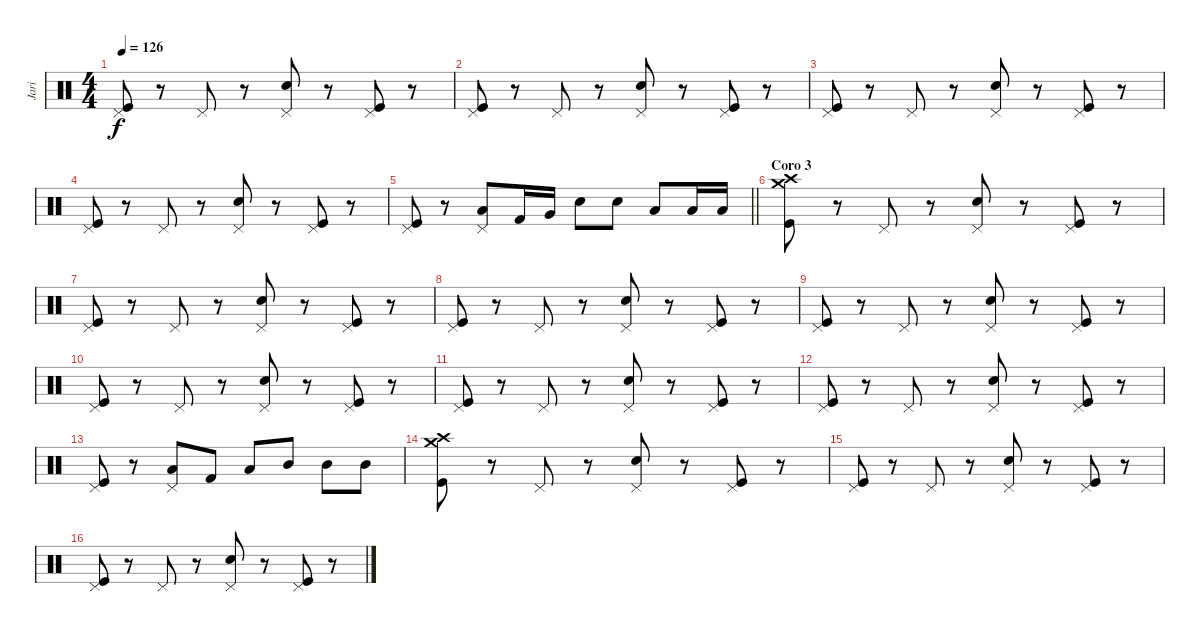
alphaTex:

\track ("Jari" "Jari") {instrument percussion}
\staff {score}
\articulation defaults
\ts (4 4)
\tempo 126
\clef neutral
\ks c
("Pedal Hi-Hat (hit)" "Kick (hit)").8{dy f} r.8 "Pedal Hi-Hat (hit)".8 r.8 ("Pedal Hi-Hat (hit)" "Snare (hit) 2").8 r.8 ("Pedal Hi-Hat (hit)" "Kick (hit)").8 r.8 |
("Pedal Hi-Hat (hit)" "Kick (hit)").8 r.8 "Pedal Hi-Hat (hit)".8 r.8 ("Pedal Hi-Hat (hit)" "Snare (hit) 2").8 r.8 ("Pedal Hi-Hat (hit)" "Kick (hit)").8 r.8 |
("Pedal Hi-Hat (hit)" "Kick (hit)").8 r.8 "Pedal Hi-Hat (hit)".8 r.8 ("Pedal Hi-Hat (hit)" "Snare (hit) 2").8 r.8 ("Pedal Hi-Hat (hit)" "Kick (hit)").8 r.8 |
("Pedal Hi-Hat (hit)" "Kick (hit)").8 r.8 "Pedal Hi-Hat (hit)".8 r.8 ("Pedal Hi-Hat (hit)" "Snare (hit) 2").8 r.8 ("Pedal Hi-Hat (hit)" "Kick (hit)").8 r.8 |
\barLineRight lightlight
("Pedal Hi-Hat (hit)" "Kick (hit)").8 r.8 ("Low Tom (hit)" "Pedal Hi-Hat (hit)").8 "Kick (hit) 2".16 "Very Low Tom (hit)".16 "Snare (hit) 2".8 "Snare (hit) 2".8 "Low Tom (hit)".8 "Low Tom (hit)".16 "Low Tom (hit)".16 |
\section ("" "Coro 3")
("Crash medium (hit)" "Crash high (hit)" "Kick (hit)").8 r.8 "Pedal Hi-Hat (hit)".8 r.8 ("Pedal Hi-Hat (hit)" "Snare (hit) 2").8 r.8 ("Pedal Hi-Hat (hit)" "Kick (hit)").8 r.8 |
("Pedal Hi-Hat (hit)" "Kick (hit)").8 r.8 "Pedal Hi-Hat (hit)".8 r.8 ("Pedal Hi-Hat (hit)" "Snare (hit) 2").8 r.8 ("Pedal Hi-Hat (hit)" "Kick (hit)").8 r.8 |
("Pedal Hi-Hat (hit)" "Kick (hit)").8 r.8 "Pedal Hi-Hat (hit)".8 r.8 ("Pedal Hi-Hat (hit)" "Snare (hit) 2").8 r.8 ("Pedal Hi-Hat (hit)" "Kick (hit)").8 r.8 |
("Pedal Hi-Hat (hit)" "Kick (hit)").8 r.8 "Pedal Hi-Hat (hit)".8 r.8 ("Pedal Hi-Hat (hit)" "Snare (hit) 2").8 r.8 ("Pedal Hi-Hat (hit)" "Kick (hit)").8 r.8 |
("Pedal Hi-Hat (hit)" "Kick (hit)").8 r.8 "Pedal Hi-Hat (hit)".8 r.8 ("Pedal Hi-Hat (hit)" "Snare (hit) 2").8 r.8 ("Pedal Hi-Hat (hit)" "Kick (hit)").8 r.8 |
("Pedal Hi-Hat (hit)" "Kick (hit)").8 r.8 "Pedal Hi-Hat (hit)".8 r.8 ("Pedal Hi-Hat (hit)" "Snare (hit) 2").8 r.8 ("Pedal Hi-Hat (hit)" "Kick (hit)").8 r.8 |
("Pedal Hi-Hat (hit)" "Kick (hit)").8 r.8 "Pedal Hi-Hat (hit)".8 r.8 ("Pedal Hi-Hat (hit)" "Snare (hit) 2").8 r.8 ("Pedal Hi-Hat (hit)" "Kick (hit)").8 r.8 |
("Pedal Hi-Hat (hit)" "Kick (hit)").8 r.8 ("Low Tom (hit)" "Pedal Hi-Hat (hit)").8 "Kick (hit) 2".8 "Low Tom (hit)".8 "Mid Tom (hit)".8 "Mid Tom (hit)".8 "Mid Tom (hit)".8 |
("Crash medium (hit)" "Crash high (hit)" "Kick (hit)").8 r.8 "Pedal Hi-Hat (hit)".8 r.8 ("Pedal Hi-Hat (hit)" "Snare (hit) 2").8 r.8 ("Pedal Hi-Hat (hit)" "Kick (hit)").8 r.8 |
("Pedal Hi-Hat (hit)" "Kick (hit)").8 r.8 "Pedal Hi-Hat (hit)".8 r.8 ("Pedal Hi-Hat (hit)" "Snare (hit) 2").8 r.8 ("Pedal Hi-Hat (hit)" "Kick (hit)").8 r.8 |
("Pedal Hi-Hat (hit)" "Kick (hit)").8 r.8 "Pedal Hi-Hat (hit)".8 r.8 ("Pedal Hi-Hat (hit)" "Snare (hit) 2").8 r.8 ("Pedal Hi-Hat (hit)" "Kick (hit)").8 r.8
